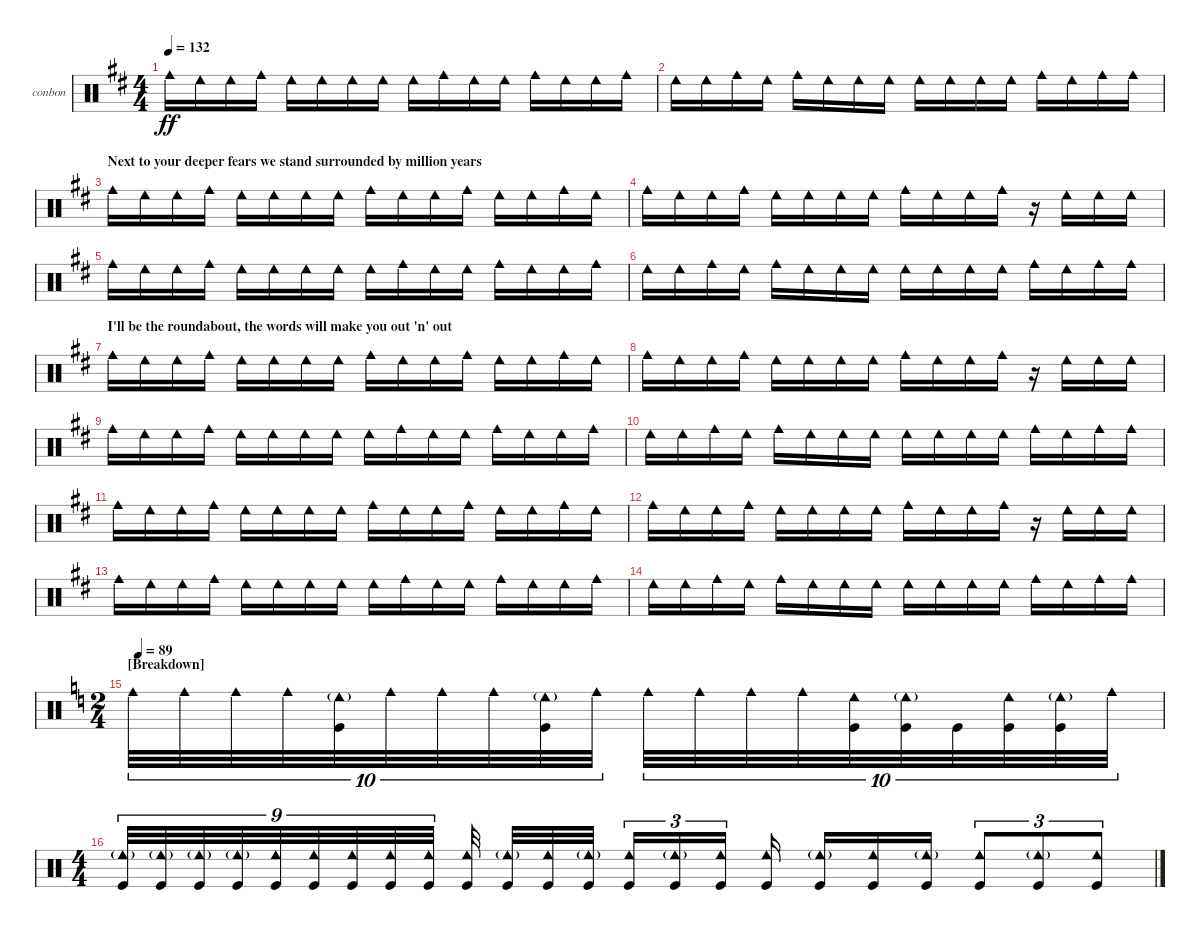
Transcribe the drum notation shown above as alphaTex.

\bracketExtendMode groupsimilarinstruments
\firstSystemTrackNameOrientation horizontal
\otherSystemsTrackNameOrientation horizontal
\track ("Bongos N Congas" "conbon") {instrument percussion}
\staff {score}
\articulation defaults
\ts (4 4)
\tempo 132
\clef neutral
\ks bminor "Cowbell medium (hit)".16{dy ff} "Cowbell low (hit)".16 "Cowbell low (hit)".16 "Cowbell medium (hit)".16 "Cowbell low (hit)".16 "Cowbell low (hit)".16 "Cowbell low (hit)".16 "Cowbell low (hit)".16 "Cowbell low (hit)".16 "Cowbell medium (hit)".16 "Cowbell low (hit)".16 "Cowbell low (hit)".16 "Cowbell medium (hit)".16 "Cowbell low (hit)".16 "Cowbell low (hit)".16 "Cowbell medium (hit)".16
|
"Cowbell low (hit)".16 "Cowbell low (hit)".16 "Cowbell medium (hit)".16 "Cowbell low (hit)".16 "Cowbell medium (hit)".16 "Cowbell low (hit)".16 "Cowbell low (hit)".16 "Cowbell low (hit)".16 "Cowbell low (hit)".16 "Cowbell low (hit)".16 "Cowbell low (hit)".16 "Cowbell low (hit)".16 "Cowbell medium (hit)".16 "Cowbell low (hit)".16 "Cowbell medium (hit)".16 "Cowbell medium (hit)".16 |
\section ("" "Next to your deeper fears we stand surrounded by million years")
"Cowbell medium (hit)".16 "Cowbell low (hit)".16 "Cowbell low (hit)".16 "Cowbell medium (hit)".16 "Cowbell low (hit)".16 "Cowbell low (hit)".16 "Cowbell low (hit)".16 "Cowbell low (hit)".16 "Cowbell medium (hit)".16 "Cowbell low (hit)".16 "Cowbell low (hit)".16 "Cowbell medium (hit)".16 "Cowbell low (hit)".16 "Cowbell low (hit)".16 "Cowbell medium (hit)".16 "Cowbell low (hit)".16 |
"Cowbell medium (hit)".16 "Cowbell low (hit)".16 "Cowbell low (hit)".16 "Cowbell medium (hit)".16 "Cowbell low (hit)".16 "Cowbell low (hit)".16 "Cowbell low (hit)".16 "Cowbell low (hit)".16 "Cowbell medium (hit)".16 "Cowbell low (hit)".16 "Cowbell low (hit)".16 "Cowbell medium (hit)".16 r.16 "Cowbell low (hit)".16 "Cowbell low (hit)".16 "Cowbell low (hit)".16 |
"Cowbell medium (hit)".16 "Cowbell low (hit)".16 "Cowbell low (hit)".16 "Cowbell medium (hit)".16 "Cowbell low (hit)".16 "Cowbell low (hit)".16 "Cowbell low (hit)".16 "Cowbell low (hit)".16 "Cowbell low (hit)".16 "Cowbell medium (hit)".16 "Cowbell low (hit)".16 "Cowbell low (hit)".16 "Cowbell medium (hit)".16 "Cowbell low (hit)".16 "Cowbell low (hit)".16 "Cowbell medium (hit)".16 |
"Cowbell low (hit)".16 "Cowbell low (hit)".16 "Cowbell medium (hit)".16 "Cowbell low (hit)".16 "Cowbell medium (hit)".16 "Cowbell low (hit)".16 "Cowbell low (hit)".16 "Cowbell low (hit)".16 "Cowbell low (hit)".16 "Cowbell low (hit)".16 "Cowbell low (hit)".16 "Cowbell low (hit)".16 "Cowbell medium (hit)".16 "Cowbell low (hit)".16 "Cowbell medium (hit)".16 "Cowbell medium (hit)".16 |
\section ("" "I'll be the roundabout, the words will make you out 'n' out")
"Cowbell medium (hit)".16 "Cowbell low (hit)".16 "Cowbell low (hit)".16 "Cowbell medium (hit)".16 "Cowbell low (hit)".16 "Cowbell low (hit)".16 "Cowbell low (hit)".16 "Cowbell low (hit)".16 "Cowbell medium (hit)".16 "Cowbell low (hit)".16 "Cowbell low (hit)".16 "Cowbell medium (hit)".16 "Cowbell low (hit)".16 "Cowbell low (hit)".16 "Cowbell medium (hit)".16 "Cowbell low (hit)".16 |
"Cowbell medium (hit)".16 "Cowbell low (hit)".16 "Cowbell low (hit)".16 "Cowbell medium (hit)".16 "Cowbell low (hit)".16 "Cowbell low (hit)".16 "Cowbell low (hit)".16 "Cowbell low (hit)".16 "Cowbell medium (hit)".16 "Cowbell low (hit)".16 "Cowbell low (hit)".16 "Cowbell medium (hit)".16 r.16 "Cowbell low (hit)".16 "Cowbell low (hit)".16 "Cowbell low (hit)".16 |
"Cowbell medium (hit)".16 "Cowbell low (hit)".16 "Cowbell low (hit)".16 "Cowbell medium (hit)".16 "Cowbell low (hit)".16 "Cowbell low (hit)".16 "Cowbell low (hit)".16 "Cowbell low (hit)".16 "Cowbell low (hit)".16 "Cowbell medium (hit)".16 "Cowbell low (hit)".16 "Cowbell low (hit)".16 "Cowbell medium (hit)".16 "Cowbell low (hit)".16 "Cowbell low (hit)".16 "Cowbell medium (hit)".16 |
"Cowbell low (hit)".16 "Cowbell low (hit)".16 "Cowbell medium (hit)".16 "Cowbell low (hit)".16 "Cowbell medium (hit)".16 "Cowbell low (hit)".16 "Cowbell low (hit)".16 "Cowbell low (hit)".16 "Cowbell low (hit)".16 "Cowbell low (hit)".16 "Cowbell low (hit)".16 "Cowbell low (hit)".16 "Cowbell medium (hit)".16 "Cowbell low (hit)".16 "Cowbell medium (hit)".16 "Cowbell medium (hit)".16 |
"Cowbell medium (hit)".16 "Cowbell low (hit)".16 "Cowbell low (hit)".16 "Cowbell medium (hit)".16 "Cowbell low (hit)".16 "Cowbell low (hit)".16 "Cowbell low (hit)".16 "Cowbell low (hit)".16 "Cowbell medium (hit)".16 "Cowbell low (hit)".16 "Cowbell low (hit)".16 "Cowbell medium (hit)".16 "Cowbell low (hit)".16 "Cowbell low (hit)".16 "Cowbell medium (hit)".16 "Cowbell low (hit)".16 |
"Cowbell medium (hit)".16 "Cowbell low (hit)".16 "Cowbell low (hit)".16 "Cowbell medium (hit)".16 "Cowbell low (hit)".16 "Cowbell low (hit)".16 "Cowbell low (hit)".16 "Cowbell low (hit)".16 "Cowbell medium (hit)".16 "Cowbell low (hit)".16 "Cowbell low (hit)".16 "Cowbell medium (hit)".16 r.16 "Cowbell low (hit)".16 "Cowbell low (hit)".16 "Cowbell low (hit)".16 |
"Cowbell medium (hit)".16 "Cowbell low (hit)".16 "Cowbell low (hit)".16 "Cowbell medium (hit)".16 "Cowbell low (hit)".16 "Cowbell low (hit)".16 "Cowbell low (hit)".16 "Cowbell low (hit)".16 "Cowbell low (hit)".16 "Cowbell medium (hit)".16 "Cowbell low (hit)".16 "Cowbell low (hit)".16 "Cowbell medium (hit)".16 "Cowbell low (hit)".16 "Cowbell low (hit)".16 "Cowbell medium (hit)".16 |
"Cowbell low (hit)".16 "Cowbell low (hit)".16 "Cowbell medium (hit)".16 "Cowbell low (hit)".16 "Cowbell medium (hit)".16 "Cowbell low (hit)".16 "Cowbell low (hit)".16 "Cowbell low (hit)".16 "Cowbell low (hit)".16 "Cowbell low (hit)".16 "Cowbell low (hit)".16 "Cowbell low (hit)".16 "Cowbell medium (hit)".16 "Cowbell low (hit)".16 "Cowbell medium (hit)".16 "Cowbell medium (hit)".16 |
\ts (2 4)
\section ("" "[Breakdown]")
\tempo (89 0.00625)
\ks aminor "Cowbell medium (hit)".32{tu (10 8)} "Cowbell medium (hit)".32{tu (10 8)} "Cowbell medium (hit)".32{tu (10 8)} "Cowbell medium (hit)".32{tu (10 8)}
("Kick (hit)" "Cowbell low (hit)"{g}).32{tu (10 8)} "Cowbell medium (hit)".32{tu (10 8)} "Cowbell medium (hit)".32{tu (10 8)} "Cowbell medium (hit)".32{tu (10 8)} ("Kick (hit)" "Cowbell low (hit)"{g}).32{tu (10 8)} "Cowbell medium (hit)".32{tu (10 8)} "Cowbell medium (hit)".32{tu (10 8)} "Cowbell medium (hit)".32{tu (10 8)} "Cowbell medium (hit)".32{tu (10 8)} "Cowbell medium (hit)".32{tu (10 8)} ("Kick (hit)" "Cowbell low (hit)").32{tu (10 8)} ("Kick (hit)" "Cowbell low (hit)"{g}).32{tu (10 8)} "Kick (hit)".32{tu (10 8)} ("Kick (hit)" "Cowbell low (hit)").32{tu (10 8)} ("Kick (hit)" "Cowbell low (hit)"{g}).32{tu (10 8)} "Cowbell medium (hit)".32{tu (10 8)} |
\ts (4 4)
("Kick (hit)" "Cowbell low (hit)"{g}).32{tu (9 8)} ("Kick (hit)" "Cowbell low (hit)"{g}).32{tu (9 8)} ("Kick (hit)" "Cowbell low (hit)"{g}).32{tu (9 8)} ("Kick (hit)" "Cowbell low (hit)"{g}).32{tu (9 8)} ("Kick (hit)" "Cowbell low (hit)").32{tu (9 8)} ("Kick (hit)" "Cowbell low (hit)").32{tu (9 8)} ("Kick (hit)" "Cowbell low (hit)").32{tu (9 8)} ("Kick (hit)" "Cowbell low (hit)").32{tu (9 8)} ("Kick (hit)" "Cowbell low (hit)").32{tu (9 8)} ("Kick (hit)" "Cowbell low (hit)").32 ("Kick (hit)" "Cowbell low (hit)"{g}).32 ("Kick (hit)" "Cowbell low (hit)").32 ("Kick (hit)" "Cowbell low (hit)"{g}).32 ("Kick (hit)" "Cowbell low (hit)").16{tu (3 2)} ("Kick (hit)" "Cowbell low (hit)"{g}).16{tu (3 2)} ("Kick (hit)" "Cowbell low (hit)").16{tu (3 2)} ("Kick (hit)" "Cowbell low (hit)").16 ("Kick (hit)" "Cowbell low (hit)"{g}).16 ("Kick (hit)" "Cowbell low (hit)").16 ("Kick (hit)" "Cowbell low (hit)"{g}).16 ("Kick (hit)" "Cowbell low (hit)").8{tu (3 2)} ("Kick (hit)" "Cowbell low (hit)"{g}).8{tu (3 2)} ("Kick (hit)" "Cowbell low (hit)").8{tu (3 2)}
